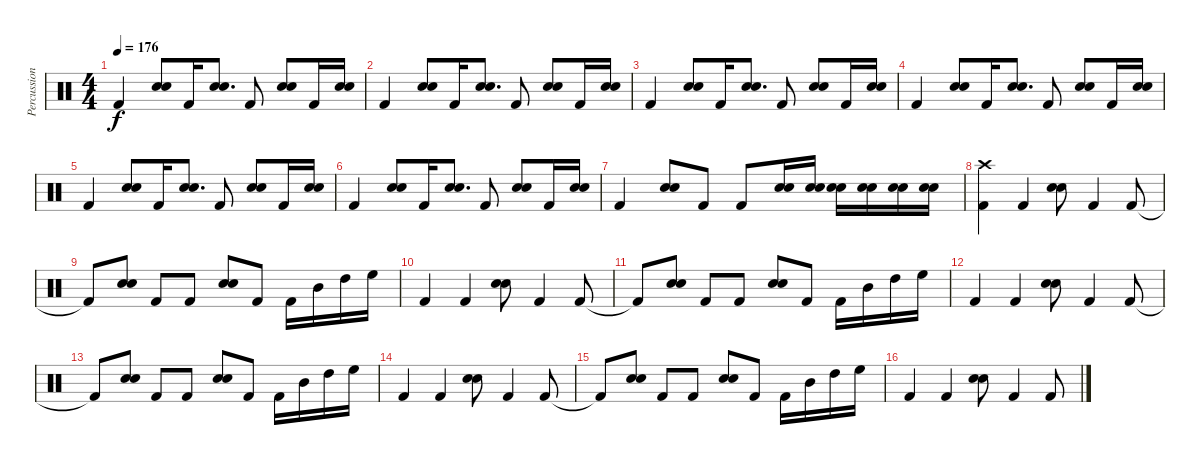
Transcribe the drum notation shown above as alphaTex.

\track ("Percussion" "Percussion") {instrument percussion}
\staff {score}
\articulation defaults
\ts (4 4)
\tempo 176
\clef neutral
\ks c "Kick (hit) 2".4{dy f}
("Electric Snare (hit)" "Snare (hit) 2").8 "Kick (hit) 2".16 ("Electric Snare (hit)" "Snare (hit) 2").8{d} "Kick (hit) 2".8 ("Electric Snare (hit)" "Snare (hit) 2").8 "Kick (hit) 2".16 ("Electric Snare (hit)" "Snare (hit) 2").16 |
"Kick (hit) 2".4 ("Electric Snare (hit)" "Snare (hit) 2").8 "Kick (hit) 2".16 ("Electric Snare (hit)" "Snare (hit) 2").8{d} "Kick (hit) 2".8 ("Electric Snare (hit)" "Snare (hit) 2").8 "Kick (hit) 2".16 ("Electric Snare (hit)" "Snare (hit) 2").16 |
"Kick (hit) 2".4 ("Electric Snare (hit)" "Snare (hit) 2").8 "Kick (hit) 2".16 ("Electric Snare (hit)" "Snare (hit) 2").8{d} "Kick (hit) 2".8 ("Electric Snare (hit)" "Snare (hit) 2").8 "Kick (hit) 2".16 ("Electric Snare (hit)" "Snare (hit) 2").16 |
"Kick (hit) 2".4 ("Electric Snare (hit)" "Snare (hit) 2").8 "Kick (hit) 2".16 ("Electric Snare (hit)" "Snare (hit) 2").8{d} "Kick (hit) 2".8 ("Electric Snare (hit)" "Snare (hit) 2").8 "Kick (hit) 2".16 ("Electric Snare (hit)" "Snare (hit) 2").16 |
"Kick (hit) 2".4 ("Electric Snare (hit)" "Snare (hit) 2").8 "Kick (hit) 2".16 ("Electric Snare (hit)" "Snare (hit) 2").8{d} "Kick (hit) 2".8 ("Electric Snare (hit)" "Snare (hit) 2").8 "Kick (hit) 2".16 ("Electric Snare (hit)" "Snare (hit) 2").16 |
"Kick (hit) 2".4 ("Electric Snare (hit)" "Snare (hit) 2").8 "Kick (hit) 2".16 ("Electric Snare (hit)" "Snare (hit) 2").8{d} "Kick (hit) 2".8 ("Electric Snare (hit)" "Snare (hit) 2").8 "Kick (hit) 2".16 ("Electric Snare (hit)" "Snare (hit) 2").16 |
"Kick (hit) 2".4 ("Electric Snare (hit)" "Snare (hit) 2").8 "Kick (hit) 2".8 "Kick (hit) 2".8 ("Electric Snare (hit)" "Snare (hit) 2").16 ("Electric Snare (hit)" "Snare (hit) 2").16 ("Electric Snare (hit)" "Snare (hit) 2").16 ("Electric Snare (hit)" "Snare (hit) 2").16 ("Electric Snare (hit)" "Snare (hit) 2").16 ("Electric Snare (hit)" "Snare (hit) 2").16 |
("Kick (hit) 2" "Crash high (hit)").4 "Kick (hit) 2".4 ("Electric Snare (hit)" "Snare (hit) 2").8 "Kick (hit) 2".4 "Kick (hit) 2".8 |
"Kick (hit) 2"{t}.8 ("Electric Snare (hit)" "Snare (hit) 2").8 "Kick (hit) 2".8 "Kick (hit) 2".8 ("Electric Snare (hit)" "Snare (hit) 2").8 "Kick (hit) 2".8 "Kick (hit) 2".16 "Mid Tom (hit)".16 "High Tom (hit)".16 "High Floor Tom (hit)".16 |
"Kick (hit) 2".4 "Kick (hit) 2".4 ("Electric Snare (hit)" "Snare (hit) 2").8 "Kick (hit) 2".4 "Kick (hit) 2".8 |
"Kick (hit) 2"{t}.8 ("Electric Snare (hit)" "Snare (hit) 2").8 "Kick (hit) 2".8 "Kick (hit) 2".8 ("Electric Snare (hit)" "Snare (hit) 2").8 "Kick (hit) 2".8 "Kick (hit) 2".16 "Mid Tom (hit)".16 "High Tom (hit)".16 "High Floor Tom (hit)".16 |
"Kick (hit) 2".4 "Kick (hit) 2".4 ("Electric Snare (hit)" "Snare (hit) 2").8 "Kick (hit) 2".4 "Kick (hit) 2".8 |
"Kick (hit) 2"{t}.8 ("Electric Snare (hit)" "Snare (hit) 2").8 "Kick (hit) 2".8 "Kick (hit) 2".8 ("Electric Snare (hit)" "Snare (hit) 2").8 "Kick (hit) 2".8 "Kick (hit) 2".16 "Mid Tom (hit)".16 "High Tom (hit)".16 "High Floor Tom (hit)".16 |
"Kick (hit) 2".4 "Kick (hit) 2".4 ("Electric Snare (hit)" "Snare (hit) 2").8 "Kick (hit) 2".4 "Kick (hit) 2".8 |
"Kick (hit) 2"{t}.8 ("Electric Snare (hit)" "Snare (hit) 2").8 "Kick (hit) 2".8 "Kick (hit) 2".8 ("Electric Snare (hit)" "Snare (hit) 2").8 "Kick (hit) 2".8 "Kick (hit) 2".16 "Mid Tom (hit)".16 "High Tom (hit)".16 "High Floor Tom (hit)".16 |
"Kick (hit) 2".4 "Kick (hit) 2".4 ("Electric Snare (hit)" "Snare (hit) 2").8 "Kick (hit) 2".4 "Kick (hit) 2".8
